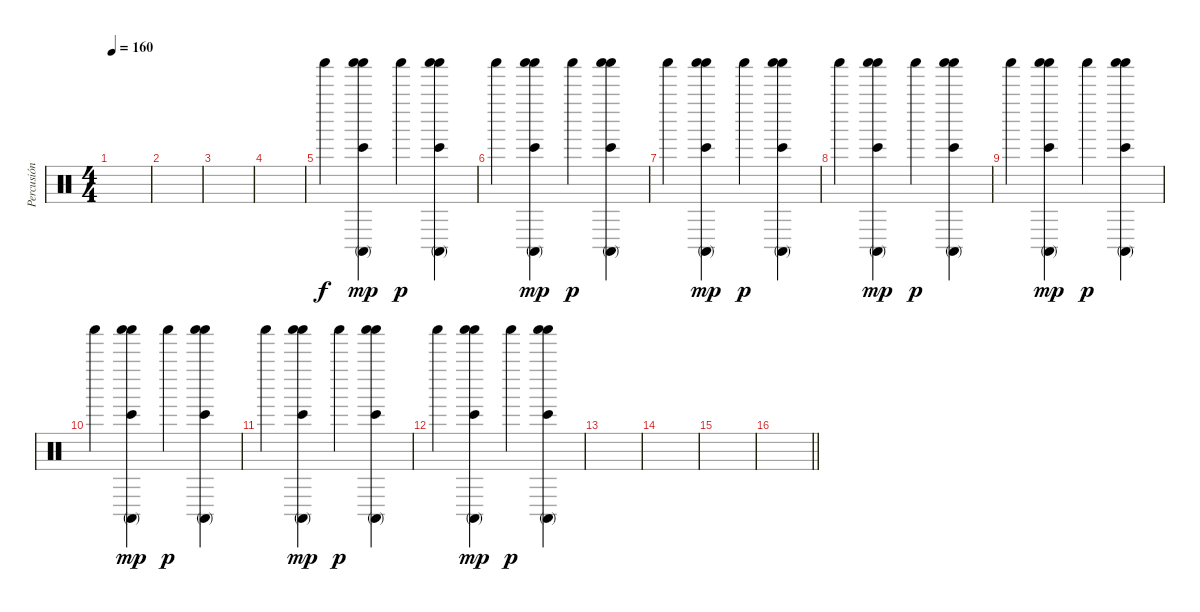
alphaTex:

\track ("Percusión" "Percusión") {instrument percussion}
\staff {score}
\articulation defaults
\ts (4 4)
\tempo 160
\clef neutral
\ks c
|
|
|
|
"Shaker (hit)".4 ("Shaker (hit)" "Conga high (mute)" "Bongo High (hit)" "Shaker (hit)").4{dy mp} "Shaker (hit)".4{dy p} ("Shaker (hit)" "Conga high (mute)" "Bongo High (hit)" "Shaker (hit)").4 |
"Shaker (hit)".4 ("Shaker (hit)" "Conga high (mute)" "Bongo High (hit)" "Shaker (hit)").4{dy mp} "Shaker (hit)".4{dy p} ("Shaker (hit)" "Conga high (mute)" "Bongo High (hit)" "Shaker (hit)").4 |
"Shaker (hit)".4 ("Shaker (hit)" "Conga high (mute)" "Bongo High (hit)" "Shaker (hit)").4{dy mp} "Shaker (hit)".4{dy p} ("Shaker (hit)" "Conga high (mute)" "Bongo High (hit)" "Shaker (hit)").4 |
"Shaker (hit)".4 ("Shaker (hit)" "Conga high (mute)" "Bongo High (hit)" "Shaker (hit)").4{dy mp} "Shaker (hit)".4{dy p} ("Shaker (hit)" "Conga high (mute)" "Bongo High (hit)" "Shaker (hit)").4 |
"Shaker (hit)".4 ("Shaker (hit)" "Conga high (mute)" "Bongo High (hit)" "Shaker (hit)").4{dy mp} "Shaker (hit)".4{dy p} ("Shaker (hit)" "Conga high (mute)" "Bongo High (hit)" "Shaker (hit)").4 |
"Shaker (hit)".4 ("Shaker (hit)" "Conga high (mute)" "Bongo High (hit)" "Shaker (hit)").4{dy mp} "Shaker (hit)".4{dy p} ("Shaker (hit)" "Conga high (mute)" "Bongo High (hit)" "Shaker (hit)").4 |
"Shaker (hit)".4 ("Shaker (hit)" "Conga high (mute)" "Bongo High (hit)" "Shaker (hit)").4{dy mp} "Shaker (hit)".4{dy p} ("Shaker (hit)" "Conga high (mute)" "Bongo High (hit)" "Shaker (hit)").4 |
"Shaker (hit)".4 ("Shaker (hit)" "Conga high (mute)" "Bongo High (hit)" "Shaker (hit)").4{dy mp} "Shaker (hit)".4{dy p} ("Shaker (hit)" "Conga high (mute)" "Bongo High (hit)" "Shaker (hit)").4 |
|
|
|
\barLineRight lightlight
